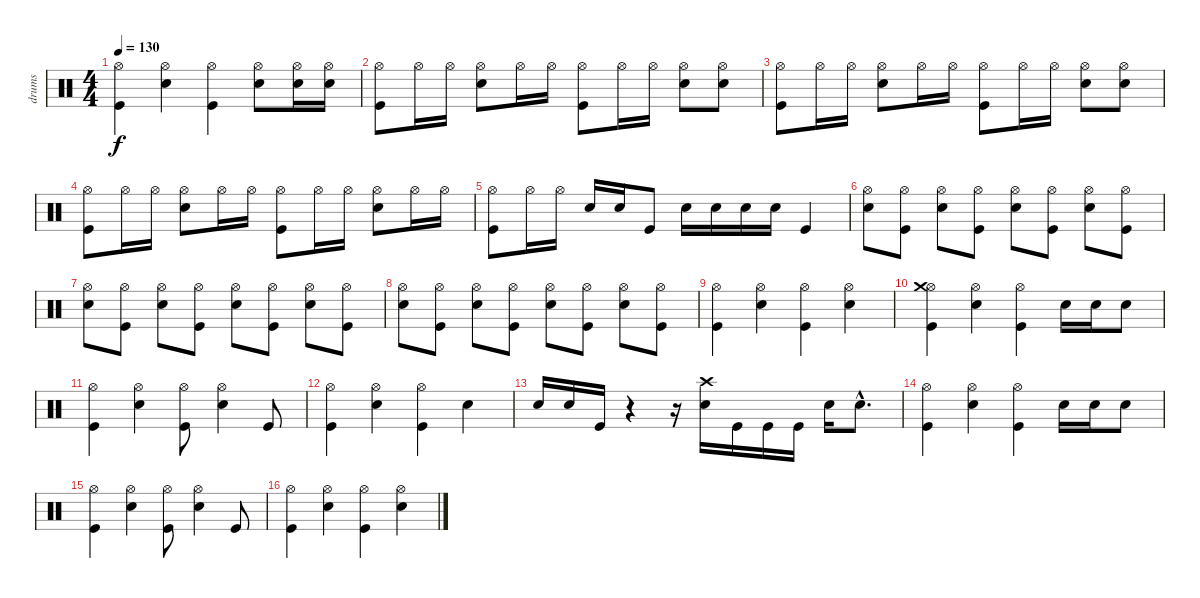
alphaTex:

\track ("drums" "drums") {instrument percussion}
\staff {score}
\articulation defaults
\ts (4 4)
\tempo 130
\clef neutral
\ks c
("Hi-Hat (open)" "Kick (hit)").4{dy f} ("Hi-Hat (open)" "Snare (hit) 2").4 ("Hi-Hat (open)" "Kick (hit)").4 ("Hi-Hat (open)" "Snare (hit) 2").8 ("Hi-Hat (open)" "Snare (hit) 2").16 ("Hi-Hat (open)" "Snare (hit) 2").16 |
("Hi-Hat (open)" "Kick (hit)").8 "Hi-Hat (open)".16 "Hi-Hat (open)".16 ("Hi-Hat (open)" "Snare (hit) 2").8 "Hi-Hat (open)".16 "Hi-Hat (open)".16 ("Hi-Hat (open)" "Kick (hit)").8 "Hi-Hat (open)".16 "Hi-Hat (open)".16 ("Snare (hit) 2" "Hi-Hat (open)").8 ("Snare (hit) 2" "Hi-Hat (open)").8 |
("Hi-Hat (open)" "Kick (hit)").8 "Hi-Hat (open)".16 "Hi-Hat (open)".16 ("Hi-Hat (open)" "Snare (hit) 2").8 "Hi-Hat (open)".16 "Hi-Hat (open)".16 ("Hi-Hat (open)" "Kick (hit)").8 "Hi-Hat (open)".16 "Hi-Hat (open)".16 ("Snare (hit) 2" "Hi-Hat (open)").8 ("Snare (hit) 2" "Hi-Hat (open)").8 |
("Hi-Hat (open)" "Kick (hit)").8 "Hi-Hat (open)".16 "Hi-Hat (open)".16 ("Hi-Hat (open)" "Snare (hit) 2").8 "Hi-Hat (open)".16 "Hi-Hat (open)".16 ("Hi-Hat (open)" "Kick (hit)").8 "Hi-Hat (open)".16 "Hi-Hat (open)".16 ("Snare (hit) 2" "Hi-Hat (open)").8 "Hi-Hat (open)".16 "Hi-Hat (open)".16 |
("Hi-Hat (open)" "Kick (hit)").8 "Hi-Hat (open)".16 "Hi-Hat (open)".16 "Snare (hit) 2".16 "Snare (hit) 2".16 "Kick (hit)".8 "Snare (hit) 2".16 "Snare (hit) 2".16 "Snare (hit) 2".16 "Snare (hit) 2".16 "Kick (hit)".4 |
("Hi-Hat (open)" "Snare (hit) 2").8 ("Hi-Hat (open)" "Kick (hit)").8 ("Hi-Hat (open)" "Snare (hit) 2").8 ("Hi-Hat (open)" "Kick (hit)").8 ("Hi-Hat (open)" "Snare (hit) 2").8 ("Hi-Hat (open)" "Kick (hit)").8 ("Hi-Hat (open)" "Snare (hit) 2").8 ("Hi-Hat (open)" "Kick (hit)").8 |
("Hi-Hat (open)" "Snare (hit) 2").8 ("Hi-Hat (open)" "Kick (hit)").8 ("Hi-Hat (open)" "Snare (hit) 2").8 ("Hi-Hat (open)" "Kick (hit)").8 ("Hi-Hat (open)" "Snare (hit) 2").8 ("Hi-Hat (open)" "Kick (hit)").8 ("Hi-Hat (open)" "Snare (hit) 2").8 ("Hi-Hat (open)" "Kick (hit)").8 |
("Hi-Hat (open)" "Snare (hit) 2").8 ("Hi-Hat (open)" "Kick (hit)").8 ("Hi-Hat (open)" "Snare (hit) 2").8 ("Hi-Hat (open)" "Kick (hit)").8 ("Hi-Hat (open)" "Snare (hit) 2").8 ("Hi-Hat (open)" "Kick (hit)").8 ("Hi-Hat (open)" "Snare (hit) 2").8 ("Hi-Hat (open)" "Kick (hit)").8 |
("Hi-Hat (open)" "Kick (hit)").4 ("Hi-Hat (open)" "Snare (hit) 2").4 ("Hi-Hat (open)" "Kick (hit)").4 ("Hi-Hat (open)" "Snare (hit) 2").4 |
("Kick (hit)" "Hi-Hat (open)" "Crash medium (hit)").4 ("Snare (hit) 2" "Hi-Hat (open)").4 ("Kick (hit)" "Hi-Hat (open)").4 "Snare (hit) 2".16 "Snare (hit) 2".16 "Snare (hit) 2".8 |
("Hi-Hat (open)" "Kick (hit)").4 ("Hi-Hat (open)" "Snare (hit) 2").4 ("Hi-Hat (open)" "Kick (hit)").8 ("Hi-Hat (open)" "Snare (hit) 2").4 "Kick (hit)".8 |
("Hi-Hat (open)" "Kick (hit)").4 ("Hi-Hat (open)" "Snare (hit) 2").4 ("Hi-Hat (open)" "Kick (hit)").4 "Snare (hit) 2".4 |
"Snare (hit) 2".16 "Snare (hit) 2".16 "Kick (hit)".16 r.4 r.16 ("Crash high (hit)" "Snare (hit) 2").16 "Kick (hit)".16 "Kick (hit)".16 "Kick (hit)".16 "Snare (hit) 2".16 "Snare (hit) 2"{hac}.8{d} |
("Kick (hit)" "Hi-Hat (open)").4 ("Snare (hit) 2" "Hi-Hat (open)").4 ("Kick (hit)" "Hi-Hat (open)").4 "Snare (hit) 2".16 "Snare (hit) 2".16 "Snare (hit) 2".8 |
("Hi-Hat (open)" "Kick (hit)").4 ("Hi-Hat (open)" "Snare (hit) 2").4 ("Hi-Hat (open)" "Kick (hit)").8 ("Hi-Hat (open)" "Snare (hit) 2").4 "Kick (hit)".8 |
("Hi-Hat (open)" "Kick (hit)").4 ("Hi-Hat (open)" "Snare (hit) 2").4 ("Hi-Hat (open)" "Kick (hit)").4 ("Hi-Hat (open)" "Snare (hit) 2").4
